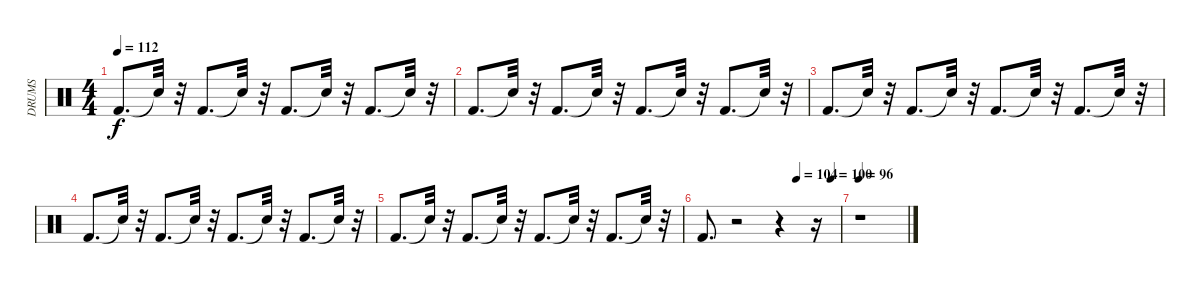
\track ("DRUMS" "DRUMS") {instrument percussion}
\staff {score}
\articulation defaults
\ts (4 4)
\tempo 112
\clef neutral
\ks c "Kick (hit) 2".8{d dy f} "Snare (hit)"{t}.32
r.32 "Kick (hit) 2".8{d} "Snare (hit)"{t}.32 r.32 "Kick (hit) 2".8{d} "Snare (hit)"{t}.32 r.32 "Kick (hit) 2".8{d} "Snare (hit)"{t}.32 r.32 |
"Kick (hit) 2".8{d} "Snare (hit)"{t}.32 r.32 "Kick (hit) 2".8{d} "Snare (hit)"{t}.32 r.32 "Kick (hit) 2".8{d} "Snare (hit)"{t}.32 r.32 "Kick (hit) 2".8{d} "Snare (hit)"{t}.32 r.32 |
"Kick (hit) 2".8{d} "Snare (hit)"{t}.32 r.32 "Kick (hit) 2".8{d} "Snare (hit)"{t}.32 r.32 "Kick (hit) 2".8{d} "Snare (hit)"{t}.32 r.32 "Kick (hit) 2".8{d} "Snare (hit)"{t}.32 r.32 |
"Kick (hit) 2".8{d} "Snare (hit)"{t}.32 r.32 "Kick (hit) 2".8{d} "Snare (hit)"{t}.32 r.32 "Kick (hit) 2".8{d} "Snare (hit)"{t}.32 r.32 "Kick (hit) 2".8{d} "Snare (hit)"{t}.32 r.32 |
"Kick (hit) 2".8{d} "Snare (hit)"{t}.32 r.32 "Kick (hit) 2".8{d} "Snare (hit)"{t}.32 r.32 "Kick (hit) 2".8{d} "Snare (hit)"{t}.32 r.32 "Kick (hit) 2".8{d} "Snare (hit)"{t}.32 r.32 |
\tempo (104 0.6875)
\tempo (100 0.9375)
"Kick (hit) 2".8{d} r.2 r.4 r.16 |
\tempo 96
r.1
